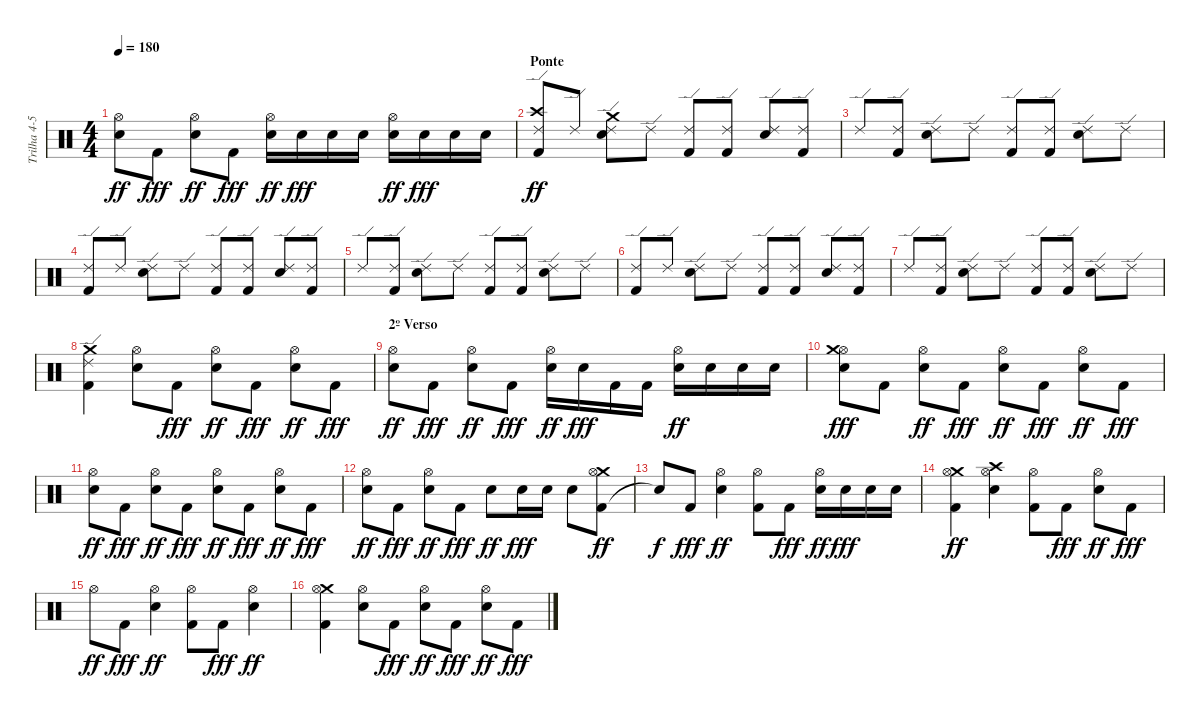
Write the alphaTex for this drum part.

\track ("Trilha 4-5" "Trilha 4-5") {instrument percussion}
\staff {score}
\articulation defaults
\ts (4 4)
\tempo 180
\clef neutral
\ks c
("Snare (hit) 2" "Hi-Hat (open)").8{dy ff} "Kick (hit) 2".8{dy fff} ("Snare (hit) 2" "Hi-Hat (open)").8{dy ff} "Kick (hit) 2".8{dy fff} ("Snare (hit) 2" "Hi-Hat (open)").16{dy ff} "Snare (hit) 2".16{dy fff} "Snare (hit) 2".16 "Snare (hit) 2".16 ("Snare (hit) 2" "Hi-Hat (open)").16{dy ff} "Snare (hit) 2".16{dy fff} "Snare (hit) 2".16 "Snare (hit) 2".16 |
\section ("" "Ponte")
("Kick (hit) 2" "Crash high (hit)" "Ride (edge) 2").8{dy ff} "Ride (edge) 2".8 ("Snare (hit) 2" "Crash medium (hit)" "Ride (edge) 2").8 "Ride (edge) 2".8 ("Kick (hit) 2" "Ride (edge) 2").8 ("Kick (hit) 2" "Ride (edge) 2").8 ("Snare (hit) 2" "Ride (edge) 2").8 ("Kick (hit) 2" "Ride (edge) 2").8 |
"Ride (edge) 2".8 ("Kick (hit) 2" "Ride (edge) 2").8 ("Snare (hit) 2" "Ride (edge) 2").8 "Ride (edge) 2".8 ("Kick (hit) 2" "Ride (edge) 2").8 ("Kick (hit) 2" "Ride (edge) 2").8 ("Snare (hit) 2" "Ride (edge) 2").8 "Ride (edge) 2".8 |
("Kick (hit) 2" "Ride (edge) 2").8 "Ride (edge) 2".8 ("Snare (hit) 2" "Ride (edge) 2").8 "Ride (edge) 2".8 ("Kick (hit) 2" "Ride (edge) 2").8 ("Kick (hit) 2" "Ride (edge) 2").8 ("Snare (hit) 2" "Ride (edge) 2").8 ("Kick (hit) 2" "Ride (edge) 2").8 |
"Ride (edge) 2".8 ("Kick (hit) 2" "Ride (edge) 2").8 ("Snare (hit) 2" "Ride (edge) 2").8 "Ride (edge) 2".8 ("Kick (hit) 2" "Ride (edge) 2").8 ("Kick (hit) 2" "Ride (edge) 2").8 ("Snare (hit) 2" "Ride (edge) 2").8 "Ride (edge) 2".8 |
("Kick (hit) 2" "Ride (edge) 2").8 "Ride (edge) 2".8 ("Snare (hit) 2" "Ride (edge) 2").8 "Ride (edge) 2".8 ("Kick (hit) 2" "Ride (edge) 2").8 ("Kick (hit) 2" "Ride (edge) 2").8 ("Snare (hit) 2" "Ride (edge) 2").8 ("Kick (hit) 2" "Ride (edge) 2").8 |
"Ride (edge) 2".8 ("Kick (hit) 2" "Ride (edge) 2").8 ("Snare (hit) 2" "Ride (edge) 2").8 "Ride (edge) 2".8 ("Kick (hit) 2" "Ride (edge) 2").8 ("Kick (hit) 2" "Ride (edge) 2").8 ("Snare (hit) 2" "Ride (edge) 2").8 "Ride (edge) 2".8 |
("Kick (hit) 2" "Crash medium (hit)" "Ride (edge) 2").4 ("Snare (hit) 2" "Hi-Hat (open)").8 "Kick (hit) 2".8{dy fff} ("Snare (hit) 2" "Hi-Hat (open)").8{dy ff} "Kick (hit) 2".8{dy fff} ("Snare (hit) 2" "Hi-Hat (open)").8{dy ff} "Kick (hit) 2".8{dy fff} |
\section ("" "2º Verso")
("Snare (hit) 2" "Hi-Hat (open)").8{dy ff} "Kick (hit) 2".8{dy fff} ("Snare (hit) 2" "Hi-Hat (open)").8{dy ff} "Kick (hit) 2".8{dy fff} ("Snare (hit) 2" "Hi-Hat (open)").16{dy ff} "Snare (hit) 2".16{dy fff} "Kick (hit) 2".16 "Kick (hit) 2".16 ("Snare (hit) 2" "Hi-Hat (open)").16{dy ff} "Snare (hit) 2".16 "Snare (hit) 2".16 "Snare (hit) 2".16 |
("Snare (hit) 2" "Hi-Hat (open)" "Crash medium (hit)").8{dy fff} "Kick (hit) 2".8 ("Snare (hit) 2" "Hi-Hat (open)").8{dy ff} "Kick (hit) 2".8{dy fff} ("Snare (hit) 2" "Hi-Hat (open)").8{dy ff} "Kick (hit) 2".8{dy fff} ("Snare (hit) 2" "Hi-Hat (open)").8{dy ff} "Kick (hit) 2".8{dy fff} |
("Snare (hit) 2" "Hi-Hat (open)").8{dy ff} "Kick (hit) 2".8{dy fff} ("Snare (hit) 2" "Hi-Hat (open)").8{dy ff} "Kick (hit) 2".8{dy fff} ("Snare (hit) 2" "Hi-Hat (open)").8{dy ff} "Kick (hit) 2".8{dy fff} ("Snare (hit) 2" "Hi-Hat (open)").8{dy ff} "Kick (hit) 2".8{dy fff} |
("Snare (hit) 2" "Hi-Hat (open)").8{dy ff} "Kick (hit) 2".8{dy fff} ("Snare (hit) 2" "Hi-Hat (open)").8{dy ff} "Kick (hit) 2".8{dy fff} "Snare (hit) 2".8{dy ff} "Snare (hit) 2".16{dy fff} "Snare (hit) 2".16 "Snare (hit) 2".8 ("Kick (hit) 2" "Crash medium (hit)" "Hi-Hat (open)").8{dy ff} |
"Snare (hit)"{t}.8{dy f} "Kick (hit) 2".8{dy fff} ("Snare (hit) 2" "Hi-Hat (open)").4{dy ff} ("Kick (hit) 2" "Hi-Hat (open)").8 "Kick (hit) 2".8{dy fff} ("Snare (hit) 2" "Hi-Hat (open)").16{dy ff} "Snare (hit) 2".16{dy fff} "Snare (hit) 2".16 "Snare (hit) 2".16 |
("Kick (hit) 2" "Crash medium (hit)" "Hi-Hat (open)").4{dy ff} ("Snare (hit) 2" "Crash high (hit)" "Hi-Hat (open)").4 ("Kick (hit) 2" "Hi-Hat (open)").8 "Kick (hit) 2".8{dy fff} ("Snare (hit) 2" "Hi-Hat (open)").8{dy ff} "Kick (hit) 2".8{dy fff} |
"Hi-Hat (open)".8{dy ff} "Kick (hit) 2".8{dy fff} ("Snare (hit) 2" "Hi-Hat (open)").4{dy ff} ("Kick (hit) 2" "Hi-Hat (open)").8 "Kick (hit) 2".8{dy fff} ("Snare (hit) 2" "Hi-Hat (open)").4{dy ff} |
("Kick (hit) 2" "Crash medium (hit)" "Hi-Hat (open)").4 ("Snare (hit) 2" "Hi-Hat (open)").8 "Kick (hit) 2".8{dy fff} ("Snare (hit) 2" "Hi-Hat (open)").8{dy ff} "Kick (hit) 2".8{dy fff} ("Snare (hit) 2" "Hi-Hat (open)").8{dy ff} "Kick (hit) 2".8{dy fff}
